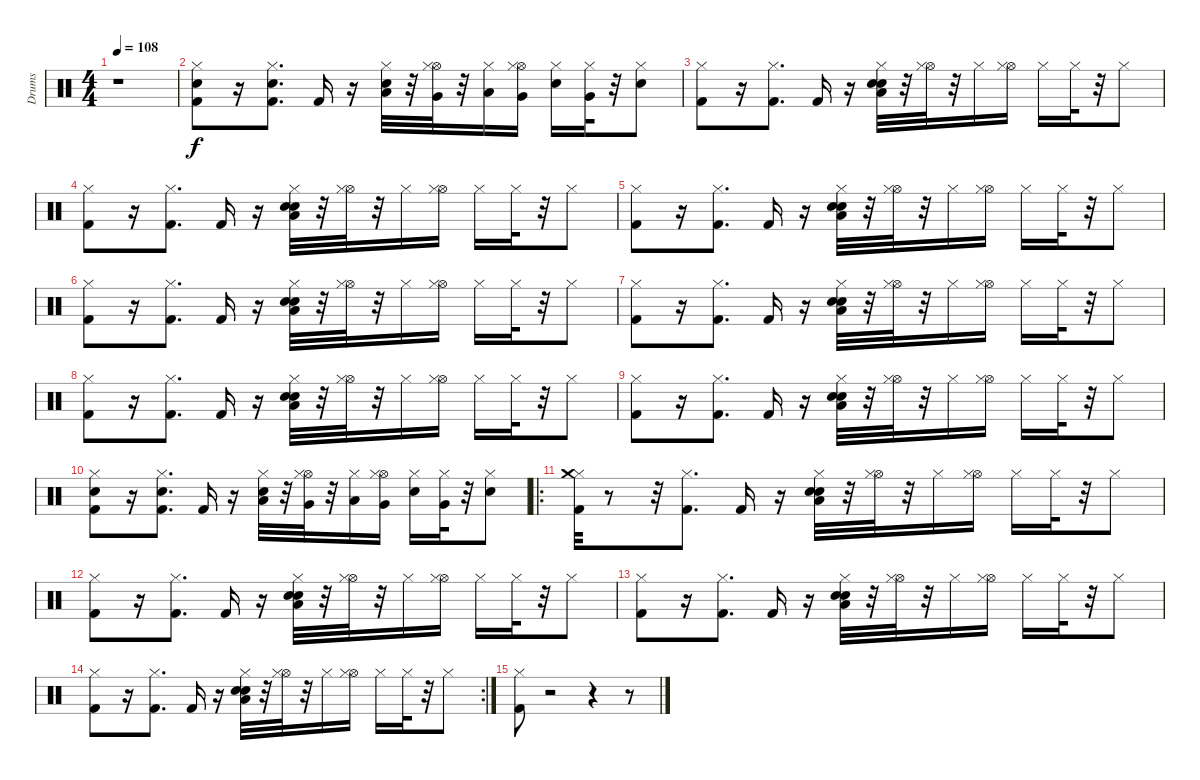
\track ("Drums" "Drums") {instrument percussion}
\staff {score}
\articulation defaults
\ts (4 4)
\tempo 108
\clef neutral
\ks c
r.1{dy f} |
("Kick (hit) 2" "Snare (hit) 2" "Hi-Hat (closed)").8 r.16 ("Kick (hit) 2" "Electric Snare (hit)" "Hi-Hat (closed)").8{d} "Kick (hit) 2".16 r.16 ("Snare (hit) 2" "Low Tom (hit)" "Hi-Hat (closed)").32 r.32 ("Very Low Tom (hit)" "Hi-Hat (open)" "Hi-Hat (closed)").32 r.32 ("Hi-Hat (closed)" "Low Floor Tom (hit)").16 ("Hi-Hat (open)" "Very Low Tom (hit)" "Hi-Hat (closed)").16 ("Electric Snare (hit)" "Hi-Hat (closed)").16 ("Very Low Tom (hit)" "Hi-Hat (closed)").32 r.32 ("Snare (hit) 2" "Hi-Hat (closed)").8 |
("Hi-Hat (closed)" "Kick (hit) 2").8 r.16 ("Kick (hit) 2" "Hi-Hat (closed)").8{d} "Kick (hit) 2".16 r.16 ("Low Floor Tom (hit)" "Electric Snare (hit)" "Snare (hit) 2" "Hi-Hat (closed)").32 r.32 ("Hi-Hat (open)" "Hi-Hat (closed)").32 r.32 "Hi-Hat (closed)".16 ("Hi-Hat (open)" "Hi-Hat (closed)").16 "Hi-Hat (closed)".16 "Hi-Hat (closed)".32 r.32 "Hi-Hat (closed)".8 |
("Hi-Hat (closed)" "Kick (hit) 2").8 r.16 ("Kick (hit) 2" "Hi-Hat (closed)").8{d} "Kick (hit) 2".16 r.16 ("Low Floor Tom (hit)" "Electric Snare (hit)" "Snare (hit) 2" "Hi-Hat (closed)").32 r.32 ("Hi-Hat (open)" "Hi-Hat (closed)").32 r.32 "Hi-Hat (closed)".16 ("Hi-Hat (open)" "Hi-Hat (closed)").16 "Hi-Hat (closed)".16 "Hi-Hat (closed)".32 r.32 "Hi-Hat (closed)".8 |
("Hi-Hat (closed)" "Kick (hit) 2").8 r.16 ("Kick (hit) 2" "Hi-Hat (closed)").8{d} "Kick (hit) 2".16 r.16 ("Low Floor Tom (hit)" "Electric Snare (hit)" "Snare (hit) 2" "Hi-Hat (closed)").32 r.32 ("Hi-Hat (open)" "Hi-Hat (closed)").32 r.32 "Hi-Hat (closed)".16 ("Hi-Hat (open)" "Hi-Hat (closed)").16 "Hi-Hat (closed)".16 "Hi-Hat (closed)".32 r.32 "Hi-Hat (closed)".8 |
("Hi-Hat (closed)" "Kick (hit) 2").8 r.16 ("Kick (hit) 2" "Hi-Hat (closed)").8{d} "Kick (hit) 2".16 r.16 ("Low Floor Tom (hit)" "Electric Snare (hit)" "Snare (hit) 2" "Hi-Hat (closed)").32 r.32 ("Hi-Hat (open)" "Hi-Hat (closed)").32 r.32 "Hi-Hat (closed)".16 ("Hi-Hat (open)" "Hi-Hat (closed)").16 "Hi-Hat (closed)".16 "Hi-Hat (closed)".32 r.32 "Hi-Hat (closed)".8 |
("Hi-Hat (closed)" "Kick (hit) 2").8 r.16 ("Kick (hit) 2" "Hi-Hat (closed)").8{d} "Kick (hit) 2".16 r.16 ("Low Floor Tom (hit)" "Electric Snare (hit)" "Snare (hit) 2" "Hi-Hat (closed)").32 r.32 ("Hi-Hat (open)" "Hi-Hat (closed)").32 r.32 "Hi-Hat (closed)".16 ("Hi-Hat (open)" "Hi-Hat (closed)").16 "Hi-Hat (closed)".16 "Hi-Hat (closed)".32 r.32 "Hi-Hat (closed)".8 |
("Hi-Hat (closed)" "Kick (hit) 2").8 r.16 ("Kick (hit) 2" "Hi-Hat (closed)").8{d} "Kick (hit) 2".16 r.16 ("Low Floor Tom (hit)" "Electric Snare (hit)" "Snare (hit) 2" "Hi-Hat (closed)").32 r.32 ("Hi-Hat (open)" "Hi-Hat (closed)").32 r.32 "Hi-Hat (closed)".16 ("Hi-Hat (open)" "Hi-Hat (closed)").16 "Hi-Hat (closed)".16 "Hi-Hat (closed)".32 r.32 "Hi-Hat (closed)".8 |
("Hi-Hat (closed)" "Kick (hit) 2").8 r.16 ("Kick (hit) 2" "Hi-Hat (closed)").8{d} "Kick (hit) 2".16 r.16 ("Low Floor Tom (hit)" "Electric Snare (hit)" "Snare (hit) 2" "Hi-Hat (closed)").32 r.32 ("Hi-Hat (open)" "Hi-Hat (closed)").32 r.32 "Hi-Hat (closed)".16 ("Hi-Hat (open)" "Hi-Hat (closed)").16 "Hi-Hat (closed)".16 "Hi-Hat (closed)".32 r.32 "Hi-Hat (closed)".8 |
("Kick (hit) 2" "Snare (hit) 2" "Hi-Hat (closed)").8 r.16 ("Kick (hit) 2" "Electric Snare (hit)" "Hi-Hat (closed)").8{d} "Kick (hit) 2".16 r.16 ("Snare (hit) 2" "Low Tom (hit)" "Hi-Hat (closed)").32 r.32 ("Very Low Tom (hit)" "Hi-Hat (open)" "Hi-Hat (closed)").32 r.32 ("Hi-Hat (closed)" "Low Floor Tom (hit)").16 ("Hi-Hat (open)" "Very Low Tom (hit)" "Hi-Hat (closed)").16 ("Electric Snare (hit)" "Hi-Hat (closed)").16 ("Very Low Tom (hit)" "Hi-Hat (closed)").32 r.32 ("Snare (hit) 2" "Hi-Hat (closed)").8 |
\ro
("Hi-Hat (closed)" "Kick (hit) 2" "Crash medium (hit)").32 r.8 r.32 ("Kick (hit) 2" "Hi-Hat (closed)").8{d} "Kick (hit) 2".16 r.16 ("Low Floor Tom (hit)" "Electric Snare (hit)" "Snare (hit) 2" "Hi-Hat (closed)").32 r.32 ("Hi-Hat (open)" "Hi-Hat (closed)").32 r.32 "Hi-Hat (closed)".16 ("Hi-Hat (open)" "Hi-Hat (closed)").16 "Hi-Hat (closed)".16 "Hi-Hat (closed)".32 r.32 "Hi-Hat (closed)".8 |
("Hi-Hat (closed)" "Kick (hit) 2").8 r.16 ("Kick (hit) 2" "Hi-Hat (closed)").8{d} "Kick (hit) 2".16 r.16 ("Low Floor Tom (hit)" "Electric Snare (hit)" "Snare (hit) 2" "Hi-Hat (closed)").32 r.32 ("Hi-Hat (open)" "Hi-Hat (closed)").32 r.32 "Hi-Hat (closed)".16 ("Hi-Hat (open)" "Hi-Hat (closed)").16 "Hi-Hat (closed)".16 "Hi-Hat (closed)".32 r.32 "Hi-Hat (closed)".8 |
("Hi-Hat (closed)" "Kick (hit) 2").8 r.16 ("Kick (hit) 2" "Hi-Hat (closed)").8{d} "Kick (hit) 2".16 r.16 ("Low Floor Tom (hit)" "Electric Snare (hit)" "Snare (hit) 2" "Hi-Hat (closed)").32 r.32 ("Hi-Hat (open)" "Hi-Hat (closed)").32 r.32 "Hi-Hat (closed)".16 ("Hi-Hat (open)" "Hi-Hat (closed)").16 "Hi-Hat (closed)".16 "Hi-Hat (closed)".32 r.32 "Hi-Hat (closed)".8 |
\rc 2
("Hi-Hat (closed)" "Kick (hit) 2").8 r.16 ("Kick (hit) 2" "Hi-Hat (closed)").8{d} "Kick (hit) 2".16 r.16 ("Low Floor Tom (hit)" "Electric Snare (hit)" "Snare (hit) 2" "Hi-Hat (closed)").32 r.32 ("Hi-Hat (open)" "Hi-Hat (closed)").32 r.32 "Hi-Hat (closed)".16 ("Hi-Hat (open)" "Hi-Hat (closed)").16 "Hi-Hat (closed)".16 "Hi-Hat (closed)".32 r.32 "Hi-Hat (closed)".8 |
("Hi-Hat (closed)" "Kick (hit) 2").8 r.2 r.4 r.8
